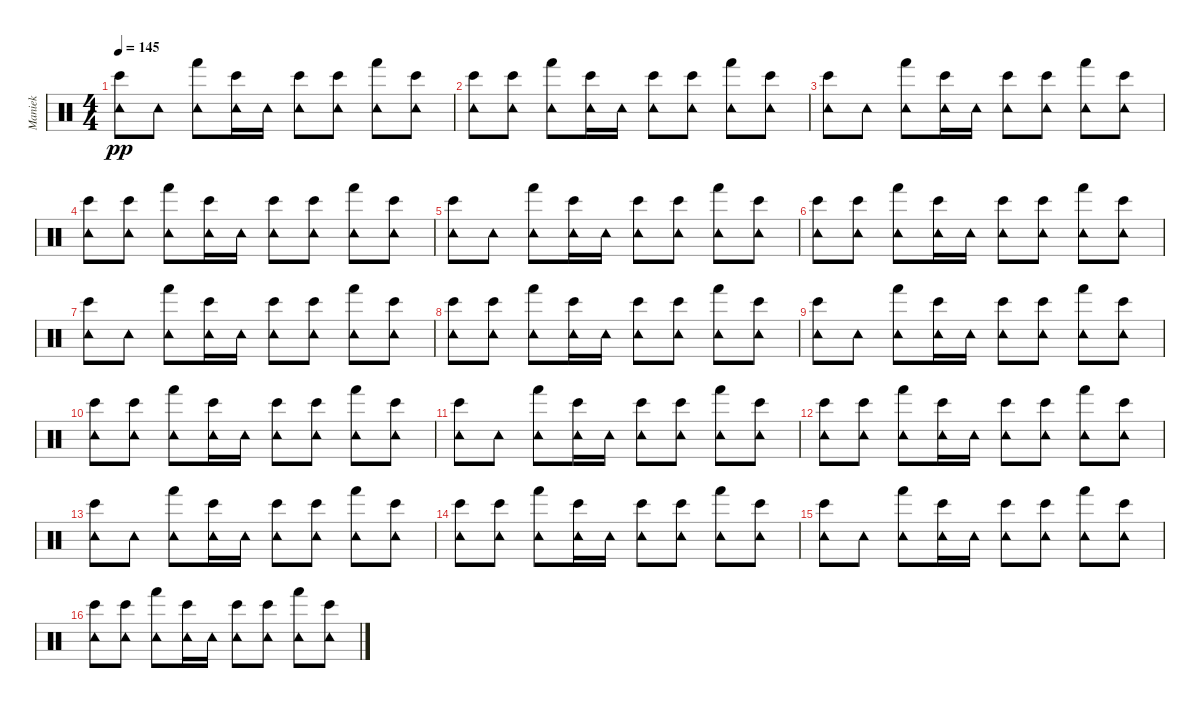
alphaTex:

\track ("Maniek" "Maniek") {instrument percussion}
\staff {score}
\articulation defaults
\ts (4 4)
\tempo 145
\clef neutral
\ks c
("Bongo High (hit)" "Tambourine (hit)").8{dy pp} "Tambourine (hit)".8 ("Hand (hit)" "Tambourine (hit)").8 ("Bongo High (hit)" "Tambourine (hit)").16 "Tambourine (hit)".16 ("Bongo High (hit)" "Tambourine (hit)").8 ("Bongo High (hit)" "Tambourine (hit)").8 ("Hand (hit)" "Tambourine (hit)").8 ("Bongo High (hit)" "Tambourine (hit)").8 |
("Bongo High (hit)" "Tambourine (hit)").8 ("Bongo High (hit)" "Tambourine (hit)").8 ("Hand (hit)" "Tambourine (hit)").8 ("Bongo High (hit)" "Tambourine (hit)").16 "Tambourine (hit)".16 ("Bongo High (hit)" "Tambourine (hit)").8 ("Bongo High (hit)" "Tambourine (hit)").8 ("Hand (hit)" "Tambourine (hit)").8 ("Bongo High (hit)" "Tambourine (hit)").8 |
("Bongo High (hit)" "Tambourine (hit)").8 "Tambourine (hit)".8 ("Hand (hit)" "Tambourine (hit)").8 ("Bongo High (hit)" "Tambourine (hit)").16 "Tambourine (hit)".16 ("Bongo High (hit)" "Tambourine (hit)").8 ("Bongo High (hit)" "Tambourine (hit)").8 ("Hand (hit)" "Tambourine (hit)").8 ("Bongo High (hit)" "Tambourine (hit)").8 |
("Bongo High (hit)" "Tambourine (hit)").8 ("Bongo High (hit)" "Tambourine (hit)").8 ("Hand (hit)" "Tambourine (hit)").8 ("Bongo High (hit)" "Tambourine (hit)").16 "Tambourine (hit)".16 ("Bongo High (hit)" "Tambourine (hit)").8 ("Bongo High (hit)" "Tambourine (hit)").8 ("Hand (hit)" "Tambourine (hit)").8 ("Bongo High (hit)" "Tambourine (hit)").8 |
("Bongo High (hit)" "Tambourine (hit)").8 "Tambourine (hit)".8 ("Hand (hit)" "Tambourine (hit)").8 ("Bongo High (hit)" "Tambourine (hit)").16 "Tambourine (hit)".16 ("Bongo High (hit)" "Tambourine (hit)").8 ("Bongo High (hit)" "Tambourine (hit)").8 ("Hand (hit)" "Tambourine (hit)").8 ("Bongo High (hit)" "Tambourine (hit)").8 |
("Bongo High (hit)" "Tambourine (hit)").8 ("Bongo High (hit)" "Tambourine (hit)").8 ("Hand (hit)" "Tambourine (hit)").8 ("Bongo High (hit)" "Tambourine (hit)").16 "Tambourine (hit)".16 ("Bongo High (hit)" "Tambourine (hit)").8 ("Bongo High (hit)" "Tambourine (hit)").8 ("Hand (hit)" "Tambourine (hit)").8 ("Bongo High (hit)" "Tambourine (hit)").8 |
("Bongo High (hit)" "Tambourine (hit)").8 "Tambourine (hit)".8 ("Hand (hit)" "Tambourine (hit)").8 ("Bongo High (hit)" "Tambourine (hit)").16 "Tambourine (hit)".16 ("Bongo High (hit)" "Tambourine (hit)").8 ("Bongo High (hit)" "Tambourine (hit)").8 ("Hand (hit)" "Tambourine (hit)").8 ("Bongo High (hit)" "Tambourine (hit)").8 |
("Bongo High (hit)" "Tambourine (hit)").8 ("Bongo High (hit)" "Tambourine (hit)").8 ("Hand (hit)" "Tambourine (hit)").8 ("Bongo High (hit)" "Tambourine (hit)").16 "Tambourine (hit)".16 ("Bongo High (hit)" "Tambourine (hit)").8 ("Bongo High (hit)" "Tambourine (hit)").8 ("Hand (hit)" "Tambourine (hit)").8 ("Bongo High (hit)" "Tambourine (hit)").8 |
("Bongo High (hit)" "Tambourine (hit)").8 "Tambourine (hit)".8 ("Hand (hit)" "Tambourine (hit)").8 ("Bongo High (hit)" "Tambourine (hit)").16 "Tambourine (hit)".16 ("Bongo High (hit)" "Tambourine (hit)").8 ("Bongo High (hit)" "Tambourine (hit)").8 ("Hand (hit)" "Tambourine (hit)").8 ("Bongo High (hit)" "Tambourine (hit)").8 |
("Bongo High (hit)" "Tambourine (hit)").8 ("Bongo High (hit)" "Tambourine (hit)").8 ("Hand (hit)" "Tambourine (hit)").8 ("Bongo High (hit)" "Tambourine (hit)").16 "Tambourine (hit)".16 ("Bongo High (hit)" "Tambourine (hit)").8 ("Bongo High (hit)" "Tambourine (hit)").8 ("Hand (hit)" "Tambourine (hit)").8 ("Bongo High (hit)" "Tambourine (hit)").8 |
("Bongo High (hit)" "Tambourine (hit)").8 "Tambourine (hit)".8 ("Hand (hit)" "Tambourine (hit)").8 ("Bongo High (hit)" "Tambourine (hit)").16 "Tambourine (hit)".16 ("Bongo High (hit)" "Tambourine (hit)").8 ("Bongo High (hit)" "Tambourine (hit)").8 ("Hand (hit)" "Tambourine (hit)").8 ("Bongo High (hit)" "Tambourine (hit)").8 |
("Bongo High (hit)" "Tambourine (hit)").8 ("Bongo High (hit)" "Tambourine (hit)").8 ("Hand (hit)" "Tambourine (hit)").8 ("Bongo High (hit)" "Tambourine (hit)").16 "Tambourine (hit)".16 ("Bongo High (hit)" "Tambourine (hit)").8 ("Bongo High (hit)" "Tambourine (hit)").8 ("Hand (hit)" "Tambourine (hit)").8 ("Bongo High (hit)" "Tambourine (hit)").8 |
("Bongo High (hit)" "Tambourine (hit)").8 "Tambourine (hit)".8 ("Hand (hit)" "Tambourine (hit)").8 ("Bongo High (hit)" "Tambourine (hit)").16 "Tambourine (hit)".16 ("Bongo High (hit)" "Tambourine (hit)").8 ("Bongo High (hit)" "Tambourine (hit)").8 ("Hand (hit)" "Tambourine (hit)").8 ("Bongo High (hit)" "Tambourine (hit)").8 |
("Bongo High (hit)" "Tambourine (hit)").8 ("Bongo High (hit)" "Tambourine (hit)").8 ("Hand (hit)" "Tambourine (hit)").8 ("Bongo High (hit)" "Tambourine (hit)").16 "Tambourine (hit)".16 ("Bongo High (hit)" "Tambourine (hit)").8 ("Bongo High (hit)" "Tambourine (hit)").8 ("Hand (hit)" "Tambourine (hit)").8 ("Bongo High (hit)" "Tambourine (hit)").8 |
("Bongo High (hit)" "Tambourine (hit)").8 "Tambourine (hit)".8 ("Hand (hit)" "Tambourine (hit)").8 ("Bongo High (hit)" "Tambourine (hit)").16 "Tambourine (hit)".16 ("Bongo High (hit)" "Tambourine (hit)").8 ("Bongo High (hit)" "Tambourine (hit)").8 ("Hand (hit)" "Tambourine (hit)").8 ("Bongo High (hit)" "Tambourine (hit)").8 |
("Bongo High (hit)" "Tambourine (hit)").8 ("Bongo High (hit)" "Tambourine (hit)").8 ("Hand (hit)" "Tambourine (hit)").8 ("Bongo High (hit)" "Tambourine (hit)").16 "Tambourine (hit)".16 ("Bongo High (hit)" "Tambourine (hit)").8 ("Bongo High (hit)" "Tambourine (hit)").8 ("Hand (hit)" "Tambourine (hit)").8 ("Bongo High (hit)" "Tambourine (hit)").8
